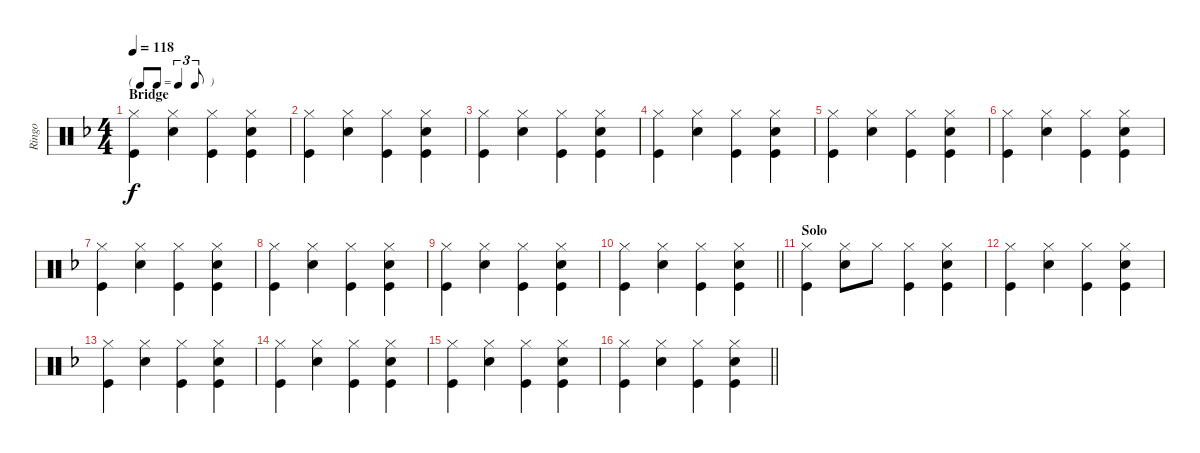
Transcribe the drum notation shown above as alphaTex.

\track ("Ringo" "Ringo") {instrument percussion}
\staff {score}
\articulation defaults
\ts (4 4)
\tf triplet8th
\section ("" "Bridge")
\tempo 118
\clef neutral
\ks f
("Hi-Hat (closed)" "Kick (hit)").4{dy f} ("Hi-Hat (closed)" "Snare (hit) 2").4 ("Hi-Hat (closed)" "Kick (hit)").4 ("Hi-Hat (closed)" "Snare (hit) 2" "Kick (hit)").4 |
("Hi-Hat (closed)" "Kick (hit)").4 ("Hi-Hat (closed)" "Snare (hit) 2").4 ("Hi-Hat (closed)" "Kick (hit)").4 ("Hi-Hat (closed)" "Snare (hit) 2" "Kick (hit)").4 |
("Hi-Hat (closed)" "Kick (hit)").4 ("Hi-Hat (closed)" "Snare (hit) 2").4 ("Hi-Hat (closed)" "Kick (hit)").4 ("Hi-Hat (closed)" "Snare (hit) 2" "Kick (hit)").4 |
("Hi-Hat (closed)" "Kick (hit)").4 ("Hi-Hat (closed)" "Snare (hit) 2").4 ("Hi-Hat (closed)" "Kick (hit)").4 ("Hi-Hat (closed)" "Snare (hit) 2" "Kick (hit)").4 |
("Hi-Hat (closed)" "Kick (hit)").4 ("Hi-Hat (closed)" "Snare (hit) 2").4 ("Hi-Hat (closed)" "Kick (hit)").4 ("Hi-Hat (closed)" "Snare (hit) 2" "Kick (hit)").4 |
("Hi-Hat (closed)" "Kick (hit)").4 ("Hi-Hat (closed)" "Snare (hit) 2").4 ("Hi-Hat (closed)" "Kick (hit)").4 ("Hi-Hat (closed)" "Snare (hit) 2" "Kick (hit)").4 |
("Hi-Hat (closed)" "Kick (hit)").4 ("Hi-Hat (closed)" "Snare (hit) 2").4 ("Hi-Hat (closed)" "Kick (hit)").4 ("Hi-Hat (closed)" "Snare (hit) 2" "Kick (hit)").4 |
("Hi-Hat (closed)" "Kick (hit)").4 ("Hi-Hat (closed)" "Snare (hit) 2").4 ("Hi-Hat (closed)" "Kick (hit)").4 ("Hi-Hat (closed)" "Snare (hit) 2" "Kick (hit)").4 |
("Hi-Hat (closed)" "Kick (hit)").4 ("Hi-Hat (closed)" "Snare (hit) 2").4 ("Hi-Hat (closed)" "Kick (hit)").4 ("Hi-Hat (closed)" "Snare (hit) 2" "Kick (hit)").4 |
\barLineRight lightlight
("Hi-Hat (closed)" "Kick (hit)").4 ("Hi-Hat (closed)" "Snare (hit) 2").4 ("Hi-Hat (closed)" "Kick (hit)").4 ("Hi-Hat (closed)" "Snare (hit) 2" "Kick (hit)").4 |
\section ("" "Solo")
("Hi-Hat (closed)" "Kick (hit)").4 ("Hi-Hat (closed)" "Snare (hit) 2").8 "Hi-Hat (closed)".8 ("Hi-Hat (closed)" "Kick (hit)").4 ("Hi-Hat (closed)" "Snare (hit) 2" "Kick (hit)").4 |
("Hi-Hat (closed)" "Kick (hit)").4 ("Hi-Hat (closed)" "Snare (hit) 2").4 ("Hi-Hat (closed)" "Kick (hit)").4 ("Hi-Hat (closed)" "Snare (hit) 2" "Kick (hit)").4 |
("Hi-Hat (closed)" "Kick (hit)").4 ("Hi-Hat (closed)" "Snare (hit) 2").4 ("Hi-Hat (closed)" "Kick (hit)").4 ("Hi-Hat (closed)" "Snare (hit) 2" "Kick (hit)").4 |
("Hi-Hat (closed)" "Kick (hit)").4 ("Hi-Hat (closed)" "Snare (hit) 2").4 ("Hi-Hat (closed)" "Kick (hit)").4 ("Hi-Hat (closed)" "Snare (hit) 2" "Kick (hit)").4 |
("Hi-Hat (closed)" "Kick (hit)").4 ("Hi-Hat (closed)" "Snare (hit) 2").4 ("Hi-Hat (closed)" "Kick (hit)").4 ("Hi-Hat (closed)" "Snare (hit) 2" "Kick (hit)").4 |
\barLineRight lightlight
("Hi-Hat (closed)" "Kick (hit)").4 ("Hi-Hat (closed)" "Snare (hit) 2").4 ("Hi-Hat (closed)" "Kick (hit)").4 ("Hi-Hat (closed)" "Snare (hit) 2" "Kick (hit)").4
